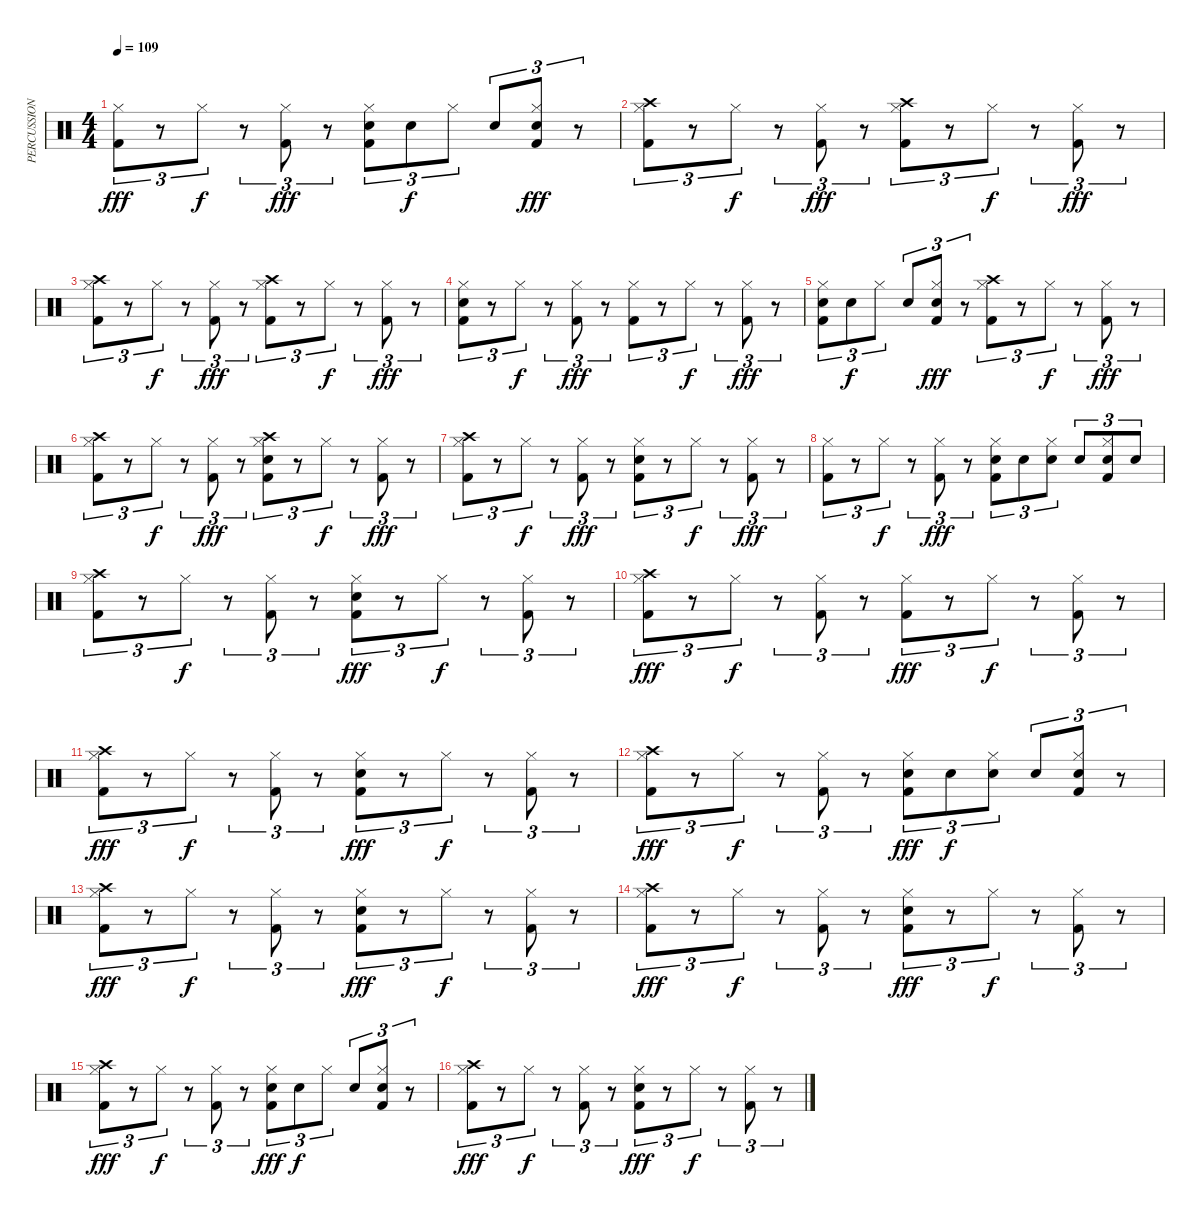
\track ("PERCUSSION" "PERCUSSION") {instrument percussion}
\staff {score}
\articulation defaults
\ts (4 4)
\tempo 109
\clef neutral
\ks c
("Kick (hit) 2" "Hi-Hat (closed)").8{tu (3 2) dy fff} r.8{tu (3 2)} "Hi-Hat (closed)".8{tu (3 2) dy f} r.8{tu (3 2)} ("Kick (hit) 2" "Hi-Hat (closed)").8{tu (3 2) dy fff} r.8{tu (3 2)} ("Kick (hit) 2" "Hi-Hat (closed)" "Snare (hit) 2").8{tu (3 2)} "Snare (hit) 2".8{tu (3 2) dy f} "Hi-Hat (closed)".8{tu (3 2)} "Snare (hit) 2".8{tu (3 2)} ("Kick (hit) 2" "Hi-Hat (closed)" "Snare (hit) 2").8{tu (3 2) dy fff} r.8{tu (3 2)} |
("Kick (hit) 2" "Hi-Hat (closed)" "Crash high (hit)").8{tu (3 2)} r.8{tu (3 2)} "Hi-Hat (closed)".8{tu (3 2) dy f} r.8{tu (3 2)} ("Kick (hit) 2" "Hi-Hat (closed)").8{tu (3 2) dy fff} r.8{tu (3 2)} ("Kick (hit) 2" "Hi-Hat (closed)" "Crash high (hit)").8{tu (3 2)} r.8{tu (3 2)} "Hi-Hat (closed)".8{tu (3 2) dy f} r.8{tu (3 2)} ("Kick (hit) 2" "Hi-Hat (closed)").8{tu (3 2) dy fff} r.8{tu (3 2)} |
("Kick (hit) 2" "Hi-Hat (closed)" "Crash high (hit)").8{tu (3 2)} r.8{tu (3 2)} "Hi-Hat (closed)".8{tu (3 2) dy f} r.8{tu (3 2)} ("Kick (hit) 2" "Hi-Hat (closed)").8{tu (3 2) dy fff} r.8{tu (3 2)} ("Kick (hit) 2" "Hi-Hat (closed)" "Crash high (hit)").8{tu (3 2)} r.8{tu (3 2)} "Hi-Hat (closed)".8{tu (3 2) dy f} r.8{tu (3 2)} ("Kick (hit) 2" "Hi-Hat (closed)").8{tu (3 2) dy fff} r.8{tu (3 2)} |
("Kick (hit) 2" "Hi-Hat (closed)" "Snare (hit) 2").8{tu (3 2)} r.8{tu (3 2)} "Hi-Hat (closed)".8{tu (3 2) dy f} r.8{tu (3 2)} ("Kick (hit) 2" "Hi-Hat (closed)").8{tu (3 2) dy fff} r.8{tu (3 2)} ("Kick (hit) 2" "Hi-Hat (closed)").8{tu (3 2)} r.8{tu (3 2)} "Hi-Hat (closed)".8{tu (3 2) dy f} r.8{tu (3 2)} ("Kick (hit) 2" "Hi-Hat (closed)").8{tu (3 2) dy fff} r.8{tu (3 2)} |
("Kick (hit) 2" "Hi-Hat (closed)" "Snare (hit) 2").8{tu (3 2)} "Snare (hit) 2".8{tu (3 2) dy f} "Hi-Hat (closed)".8{tu (3 2)} "Snare (hit) 2".8{tu (3 2)} ("Kick (hit) 2" "Hi-Hat (closed)" "Snare (hit) 2").8{tu (3 2) dy fff} r.8{tu (3 2)} ("Kick (hit) 2" "Hi-Hat (closed)" "Crash high (hit)").8{tu (3 2)} r.8{tu (3 2)} "Hi-Hat (closed)".8{tu (3 2) dy f} r.8{tu (3 2)} ("Kick (hit) 2" "Hi-Hat (closed)").8{tu (3 2) dy fff} r.8{tu (3 2)} |
("Kick (hit) 2" "Hi-Hat (closed)" "Crash high (hit)").8{tu (3 2)} r.8{tu (3 2)} "Hi-Hat (closed)".8{tu (3 2) dy f} r.8{tu (3 2)} ("Kick (hit) 2" "Hi-Hat (closed)").8{tu (3 2) dy fff} r.8{tu (3 2)} ("Kick (hit) 2" "Hi-Hat (closed)" "Snare (hit) 2" "Crash high (hit)").8{tu (3 2)} r.8{tu (3 2)} "Hi-Hat (closed)".8{tu (3 2) dy f} r.8{tu (3 2)} ("Kick (hit) 2" "Hi-Hat (closed)").8{tu (3 2) dy fff} r.8{tu (3 2)} |
("Kick (hit) 2" "Hi-Hat (closed)" "Crash high (hit)").8{tu (3 2)} r.8{tu (3 2)} "Hi-Hat (closed)".8{tu (3 2) dy f} r.8{tu (3 2)} ("Kick (hit) 2" "Hi-Hat (closed)").8{tu (3 2) dy fff} r.8{tu (3 2)} ("Kick (hit) 2" "Hi-Hat (closed)" "Snare (hit) 2").8{tu (3 2)} r.8{tu (3 2)} "Hi-Hat (closed)".8{tu (3 2) dy f} r.8{tu (3 2)} ("Kick (hit) 2" "Hi-Hat (closed)").8{tu (3 2) dy fff} r.8{tu (3 2)} |
("Kick (hit) 2" "Hi-Hat (closed)").8{tu (3 2)} r.8{tu (3 2)} "Hi-Hat (closed)".8{tu (3 2) dy f} r.8{tu (3 2)} ("Kick (hit) 2" "Hi-Hat (closed)").8{tu (3 2) dy fff} r.8{tu (3 2)} ("Kick (hit) 2" "Hi-Hat (closed)" "Snare (hit) 2").8{tu (3 2)} "Snare (hit) 2".8{tu (3 2)} ("Hi-Hat (closed)" "Snare (hit) 2").8{tu (3 2)} "Snare (hit) 2".8{tu (3 2)} ("Kick (hit) 2" "Hi-Hat (closed)" "Snare (hit) 2").8{tu (3 2)} "Snare (hit) 2".8{tu (3 2)} |
("Kick (hit) 2" "Hi-Hat (closed)" "Crash high (hit)").8{tu (3 2)} r.8{tu (3 2)} "Hi-Hat (closed)".8{tu (3 2) dy f} r.8{tu (3 2)} ("Kick (hit) 2" "Hi-Hat (closed)").8{tu (3 2)} r.8{tu (3 2)} ("Kick (hit) 2" "Snare (hit) 2" "Hi-Hat (closed)").8{tu (3 2) dy fff} r.8{tu (3 2)} "Hi-Hat (closed)".8{tu (3 2) dy f} r.8{tu (3 2)} ("Kick (hit) 2" "Hi-Hat (closed)").8{tu (3 2)} r.8{tu (3 2)} |
("Kick (hit) 2" "Hi-Hat (closed)" "Crash high (hit)").8{tu (3 2) dy fff} r.8{tu (3 2)} "Hi-Hat (closed)".8{tu (3 2) dy f} r.8{tu (3 2)} ("Kick (hit) 2" "Hi-Hat (closed)").8{tu (3 2)} r.8{tu (3 2)} ("Kick (hit) 2" "Hi-Hat (closed)").8{tu (3 2) dy fff} r.8{tu (3 2)} "Hi-Hat (closed)".8{tu (3 2) dy f} r.8{tu (3 2)} ("Kick (hit) 2" "Hi-Hat (closed)").8{tu (3 2)} r.8{tu (3 2)} |
("Kick (hit) 2" "Hi-Hat (closed)" "Crash high (hit)").8{tu (3 2) dy fff} r.8{tu (3 2)} "Hi-Hat (closed)".8{tu (3 2) dy f} r.8{tu (3 2)} ("Kick (hit) 2" "Hi-Hat (closed)").8{tu (3 2)} r.8{tu (3 2)} ("Kick (hit) 2" "Snare (hit) 2" "Hi-Hat (closed)").8{tu (3 2) dy fff} r.8{tu (3 2)} "Hi-Hat (closed)".8{tu (3 2) dy f} r.8{tu (3 2)} ("Kick (hit) 2" "Hi-Hat (closed)").8{tu (3 2)} r.8{tu (3 2)} |
("Kick (hit) 2" "Hi-Hat (closed)" "Crash high (hit)").8{tu (3 2) dy fff} r.8{tu (3 2)} "Hi-Hat (closed)".8{tu (3 2) dy f} r.8{tu (3 2)} ("Kick (hit) 2" "Hi-Hat (closed)").8{tu (3 2)} r.8{tu (3 2)} ("Kick (hit) 2" "Hi-Hat (closed)" "Snare (hit) 2").8{tu (3 2) dy fff} "Snare (hit) 2".8{tu (3 2) dy f} ("Hi-Hat (closed)" "Snare (hit) 2").8{tu (3 2)} "Snare (hit) 2".8{tu (3 2)} ("Kick (hit) 2" "Hi-Hat (closed)" "Snare (hit) 2").8{tu (3 2)} r.8{tu (3 2)} |
("Kick (hit) 2" "Hi-Hat (closed)" "Crash high (hit)").8{tu (3 2) dy fff} r.8{tu (3 2)} "Hi-Hat (closed)".8{tu (3 2) dy f} r.8{tu (3 2)} ("Kick (hit) 2" "Hi-Hat (closed)").8{tu (3 2)} r.8{tu (3 2)} ("Kick (hit) 2" "Snare (hit) 2" "Hi-Hat (closed)").8{tu (3 2) dy fff} r.8{tu (3 2)} "Hi-Hat (closed)".8{tu (3 2) dy f} r.8{tu (3 2)} ("Kick (hit) 2" "Hi-Hat (closed)").8{tu (3 2)} r.8{tu (3 2)} |
("Kick (hit) 2" "Hi-Hat (closed)" "Crash high (hit)").8{tu (3 2) dy fff} r.8{tu (3 2)} "Hi-Hat (closed)".8{tu (3 2) dy f} r.8{tu (3 2)} ("Kick (hit) 2" "Hi-Hat (closed)").8{tu (3 2)} r.8{tu (3 2)} ("Kick (hit) 2" "Hi-Hat (closed)" "Snare (hit) 2").8{tu (3 2) dy fff} r.8{tu (3 2)} "Hi-Hat (closed)".8{tu (3 2) dy f} r.8{tu (3 2)} ("Kick (hit) 2" "Hi-Hat (closed)").8{tu (3 2)} r.8{tu (3 2)} |
("Kick (hit) 2" "Hi-Hat (closed)" "Crash high (hit)").8{tu (3 2) dy fff} r.8{tu (3 2)} "Hi-Hat (closed)".8{tu (3 2) dy f} r.8{tu (3 2)} ("Kick (hit) 2" "Hi-Hat (closed)").8{tu (3 2)} r.8{tu (3 2)} ("Kick (hit) 2" "Snare (hit) 2" "Hi-Hat (closed)").8{tu (3 2) dy fff} "Snare (hit) 2".8{tu (3 2) dy f} "Hi-Hat (closed)".8{tu (3 2)} "Snare (hit) 2".8{tu (3 2)} ("Kick (hit) 2" "Snare (hit) 2" "Hi-Hat (closed)").8{tu (3 2)} r.8{tu (3 2)} |
("Kick (hit) 2" "Hi-Hat (closed)" "Crash high (hit)").8{tu (3 2) dy fff} r.8{tu (3 2)} "Hi-Hat (closed)".8{tu (3 2) dy f} r.8{tu (3 2)} ("Kick (hit) 2" "Hi-Hat (closed)").8{tu (3 2)} r.8{tu (3 2)} ("Kick (hit) 2" "Snare (hit) 2" "Hi-Hat (closed)").8{tu (3 2) dy fff} r.8{tu (3 2)} "Hi-Hat (closed)".8{tu (3 2) dy f} r.8{tu (3 2)} ("Kick (hit) 2" "Hi-Hat (closed)").8{tu (3 2)} r.8{tu (3 2)}
